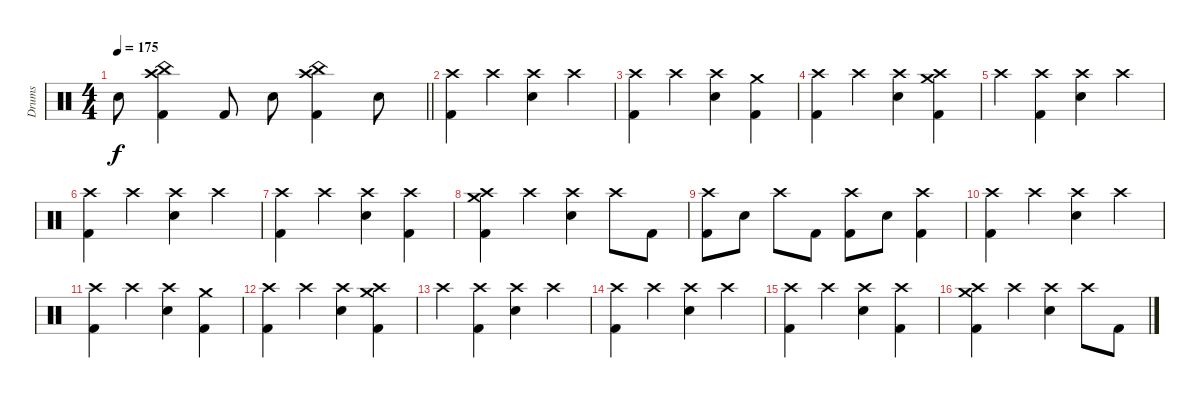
\track ("Drums" "Drums") {instrument percussion}
\staff {score}
\articulation defaults
\ts (4 4)
\tempo 175
\clef neutral
\barLineRight lightlight
\ks c "Snare (hit) 2".8{dy f}
("China (hit)" "Crash high (hit)" "Kick (hit) 2").4 "Kick (hit) 2".8 "Snare (hit) 2".8 ("China (hit)" "Crash high (hit)" "Kick (hit) 2").4 "Snare (hit) 2".8 |
\section ("" "")
("Crash high (hit)" "Kick (hit) 2").4 "Crash high (hit)".4 ("Crash high (hit)" "Snare (hit) 2").4 "Crash high (hit)".4 |
\section ("" "")
("Crash high (hit)" "Kick (hit) 2").4 "Crash high (hit)".4 ("Crash high (hit)" "Snare (hit) 2").4 ("Crash medium (hit)" "Kick (hit) 2").4 |
("Crash high (hit)" "Kick (hit) 2").4 "Crash high (hit)".4 ("Crash high (hit)" "Snare (hit) 2").4 ("Crash high (hit)" "Crash medium (hit)" "Kick (hit) 2").4 |
"Crash high (hit)".4 ("Crash high (hit)" "Kick (hit) 2").4 ("Crash high (hit)" "Snare (hit) 2").4 "Crash high (hit)".4 |
("Crash high (hit)" "Kick (hit) 2").4 "Crash high (hit)".4 ("Crash high (hit)" "Snare (hit) 2").4 "Crash high (hit)".4 |
("Crash high (hit)" "Kick (hit) 2").4 "Crash high (hit)".4 ("Crash high (hit)" "Snare (hit) 2").4 ("Crash high (hit)" "Kick (hit) 2").4 |
("Crash high (hit)" "Crash medium (hit)" "Kick (hit) 2").4 "Crash high (hit)".4 ("Crash high (hit)" "Snare (hit) 2").4 "Crash high (hit)".8 "Kick (hit) 2".8 |
("Crash high (hit)" "Kick (hit) 2").8 "Snare (hit) 2".8 "Crash high (hit)".8 "Kick (hit) 2".8 ("Crash high (hit)" "Kick (hit) 2").8 "Snare (hit) 2".8 ("Crash high (hit)" "Kick (hit) 2").4 |
("Crash high (hit)" "Kick (hit) 2").4 "Crash high (hit)".4 ("Crash high (hit)" "Snare (hit) 2").4 "Crash high (hit)".4 |
("Crash high (hit)" "Kick (hit) 2").4 "Crash high (hit)".4 ("Crash high (hit)" "Snare (hit) 2").4 ("Crash medium (hit)" "Kick (hit) 2").4 |
("Crash high (hit)" "Kick (hit) 2").4 "Crash high (hit)".4 ("Crash high (hit)" "Snare (hit) 2").4 ("Crash high (hit)" "Crash medium (hit)" "Kick (hit) 2").4 |
"Crash high (hit)".4 ("Crash high (hit)" "Kick (hit) 2").4 ("Crash high (hit)" "Snare (hit) 2").4 "Crash high (hit)".4 |
("Crash high (hit)" "Kick (hit) 2").4 "Crash high (hit)".4 ("Crash high (hit)" "Snare (hit) 2").4 "Crash high (hit)".4 |
("Crash high (hit)" "Kick (hit) 2").4 "Crash high (hit)".4 ("Crash high (hit)" "Snare (hit) 2").4 ("Crash high (hit)" "Kick (hit) 2").4 |
("Crash high (hit)" "Crash medium (hit)" "Kick (hit) 2").4 "Crash high (hit)".4 ("Crash high (hit)" "Snare (hit) 2").4 "Crash high (hit)".8 "Kick (hit) 2".8
